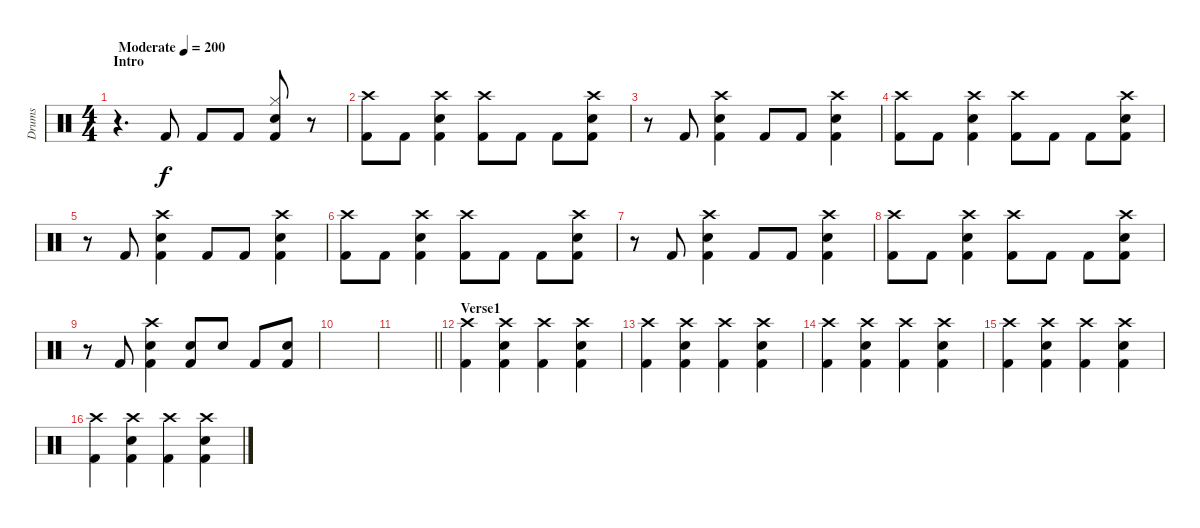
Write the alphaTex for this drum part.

\track ("Drums" "Drums") {instrument percussion}
\staff {score}
\articulation defaults
\ts (4 4)
\section ("" "Intro")
\tempo (200 "Moderate")
\clef neutral
\ks c
r.4{d dy f} "Kick (hit) 2".8 "Kick (hit) 2".8 "Kick (hit) 2".8 ("Hi-Hat (closed)" "Snare (hit) 2" "Kick (hit) 2").8 r.8 |
("Crash high (hit)" "Kick (hit) 2").8 "Kick (hit) 2".8 ("Crash high (hit)" "Snare (hit) 2" "Kick (hit) 2").4 ("Crash high (hit)" "Kick (hit) 2").8 "Kick (hit) 2".8 "Kick (hit) 2".8 ("Crash high (hit)" "Snare (hit) 2" "Kick (hit) 2").8 |
r.8 "Kick (hit) 2".8 ("Crash high (hit)" "Snare (hit) 2" "Kick (hit) 2").4 "Kick (hit) 2".8 "Kick (hit) 2".8 ("Crash high (hit)" "Snare (hit) 2" "Kick (hit) 2").4 |
("Crash high (hit)" "Kick (hit) 2").8 "Kick (hit) 2".8 ("Crash high (hit)" "Snare (hit) 2" "Kick (hit) 2").4 ("Crash high (hit)" "Kick (hit) 2").8 "Kick (hit) 2".8 "Kick (hit) 2".8 ("Crash high (hit)" "Snare (hit) 2" "Kick (hit) 2").8 |
r.8 "Kick (hit) 2".8 ("Crash high (hit)" "Snare (hit) 2" "Kick (hit) 2").4 "Kick (hit) 2".8 "Kick (hit) 2".8 ("Crash high (hit)" "Snare (hit) 2" "Kick (hit) 2").4 |
("Crash high (hit)" "Kick (hit) 2").8 "Kick (hit) 2".8 ("Crash high (hit)" "Snare (hit) 2" "Kick (hit) 2").4 ("Crash high (hit)" "Kick (hit) 2").8 "Kick (hit) 2".8 "Kick (hit) 2".8 ("Crash high (hit)" "Snare (hit) 2" "Kick (hit) 2").8 |
r.8 "Kick (hit) 2".8 ("Crash high (hit)" "Snare (hit) 2" "Kick (hit) 2").4 "Kick (hit) 2".8 "Kick (hit) 2".8 ("Crash high (hit)" "Snare (hit) 2" "Kick (hit) 2").4 |
("Crash high (hit)" "Kick (hit) 2").8 "Kick (hit) 2".8 ("Crash high (hit)" "Snare (hit) 2" "Kick (hit) 2").4 ("Crash high (hit)" "Kick (hit) 2").8 "Kick (hit) 2".8 "Kick (hit) 2".8 ("Crash high (hit)" "Snare (hit) 2" "Kick (hit) 2").8 |
r.8 "Kick (hit) 2".8 ("Crash high (hit)" "Snare (hit) 2" "Kick (hit) 2").4 ("Snare (hit) 2" "Kick (hit) 2").8 "Snare (hit) 2".8 "Kick (hit) 2".8 ("Snare (hit) 2" "Kick (hit) 2").8 |
|
\barLineRight lightlight
|
\section ("" "Verse1")
("Crash high (hit)" "Kick (hit) 2").4 ("Crash high (hit)" "Snare (hit) 2" "Kick (hit) 2").4 ("Crash high (hit)" "Kick (hit) 2").4 ("Crash high (hit)" "Snare (hit) 2" "Kick (hit) 2").4 |
("Crash high (hit)" "Kick (hit) 2").4 ("Crash high (hit)" "Snare (hit) 2" "Kick (hit) 2").4 ("Crash high (hit)" "Kick (hit) 2").4 ("Crash high (hit)" "Snare (hit) 2" "Kick (hit) 2").4 |
("Crash high (hit)" "Kick (hit) 2").4 ("Crash high (hit)" "Snare (hit) 2" "Kick (hit) 2").4 ("Crash high (hit)" "Kick (hit) 2").4 ("Crash high (hit)" "Snare (hit) 2" "Kick (hit) 2").4 |
("Crash high (hit)" "Kick (hit) 2").4 ("Crash high (hit)" "Snare (hit) 2" "Kick (hit) 2").4 ("Crash high (hit)" "Kick (hit) 2").4 ("Crash high (hit)" "Snare (hit) 2" "Kick (hit) 2").4 |
("Crash high (hit)" "Kick (hit) 2").4 ("Crash high (hit)" "Snare (hit) 2" "Kick (hit) 2").4 ("Crash high (hit)" "Kick (hit) 2").4 ("Crash high (hit)" "Snare (hit) 2" "Kick (hit) 2").4
